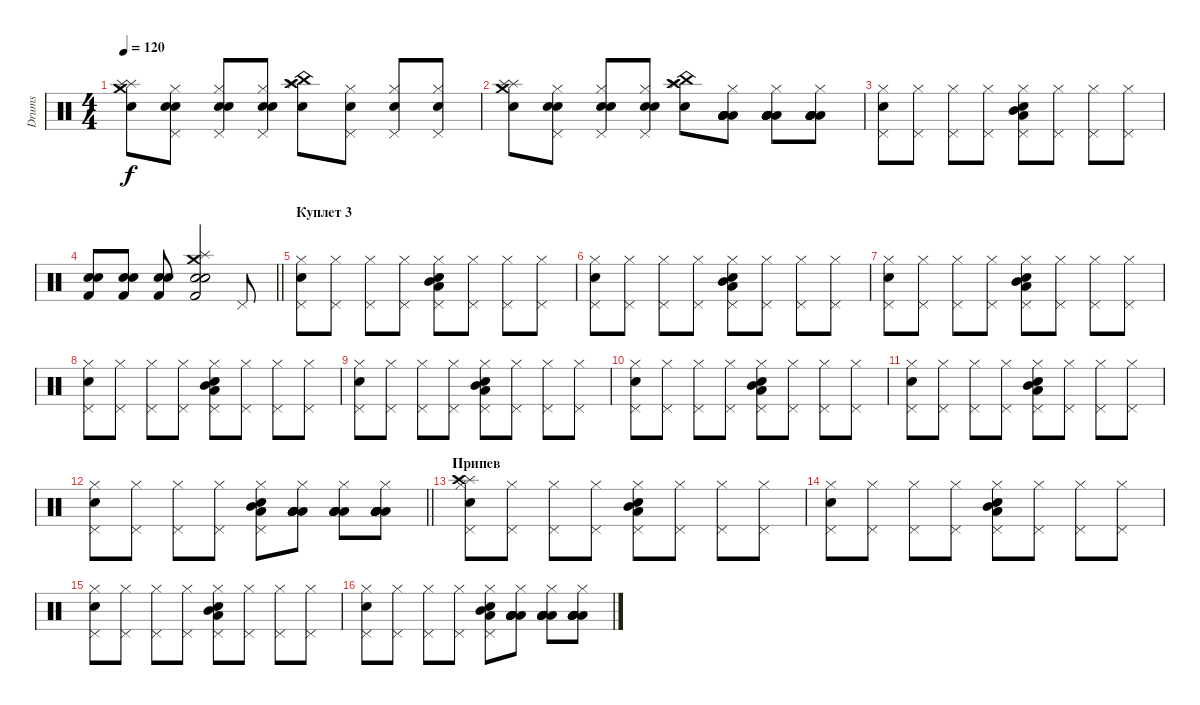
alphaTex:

\track ("Drums" "Drums") {instrument percussion}
\staff {score}
\articulation defaults
\ts (4 4)
\tempo 120
\clef neutral
\ks c
("Snare (hit) 2" "Crash medium (hit)" "Splash (hit)" "Splash (hit)").8{dy f} ("Hi-Hat (closed)" "Pedal Hi-Hat (hit)" "Snare (hit) 2" "Snare (hit) 2").8 ("Hi-Hat (closed)" "Pedal Hi-Hat (hit)" "Snare (hit) 2" "Snare (hit) 2").8 ("Hi-Hat (closed)" "Pedal Hi-Hat (hit)" "Snare (hit) 2" "Snare (hit) 2").8 ("Crash high (hit)" "Splash (hit)" "China (hit)" "Snare (hit) 2").8 ("Hi-Hat (closed)" "Pedal Hi-Hat (hit)" "Snare (hit) 2").8 ("Hi-Hat (closed)" "Pedal Hi-Hat (hit)" "Snare (hit) 2").8 ("Hi-Hat (closed)" "Pedal Hi-Hat (hit)" "Snare (hit) 2").8 |
("Snare (hit) 2" "Crash medium (hit)" "Splash (hit)" "Splash (hit)").8 ("Hi-Hat (closed)" "Pedal Hi-Hat (hit)" "Snare (hit) 2" "Snare (hit) 2").8 ("Hi-Hat (closed)" "Pedal Hi-Hat (hit)" "Snare (hit) 2" "Snare (hit) 2").8 ("Hi-Hat (closed)" "Pedal Hi-Hat (hit)" "Snare (hit) 2" "Snare (hit) 2").8 ("Crash high (hit)" "Splash (hit)" "China (hit)" "Snare (hit) 2").8 ("Hi-Hat (closed)" "Low Tom (hit)" "Low Tom (hit)" "Low Tom (hit)" "Low Tom (hit)" "Low Tom (hit)").8 ("Hi-Hat (closed)" "Low Tom (hit)" "Low Tom (hit)" "Low Tom (hit)" "Low Tom (hit)" "Low Tom (hit)").8 ("Hi-Hat (closed)" "Low Tom (hit)" "Low Tom (hit)" "Low Tom (hit)" "Low Tom (hit)" "Low Tom (hit)").8 |
("Hi-Hat (closed)" "Pedal Hi-Hat (hit)" "Snare (hit) 2").8 ("Hi-Hat (closed)" "Pedal Hi-Hat (hit)").8 ("Hi-Hat (closed)" "Pedal Hi-Hat (hit)").8 ("Hi-Hat (closed)" "Pedal Hi-Hat (hit)").8 ("Hi-Hat (closed)" "Pedal Hi-Hat (hit)" "Mid Tom (hit)" "Low Floor Tom (hit)" "Electric Snare (hit)").8 ("Hi-Hat (closed)" "Pedal Hi-Hat (hit)").8 ("Hi-Hat (closed)" "Pedal Hi-Hat (hit)").8 ("Hi-Hat (closed)" "Pedal Hi-Hat (hit)").8 |
\barLineRight lightlight
("Kick (hit) 2" "Snare (hit) 2" "Electric Snare (hit)").8 ("Kick (hit) 2" "Snare (hit) 2" "Electric Snare (hit)").8 ("Kick (hit) 2" "Snare (hit) 2" "Electric Snare (hit)").8 ("Kick (hit) 2" "Snare (hit) 2" "Electric Snare (hit)" "Crash medium (hit)" "Splash (hit)").2 "Pedal Hi-Hat (hit)".8 |
\section ("" "Куплет 3")
("Hi-Hat (closed)" "Pedal Hi-Hat (hit)" "Snare (hit) 2").8 ("Hi-Hat (closed)" "Pedal Hi-Hat (hit)").8 ("Hi-Hat (closed)" "Pedal Hi-Hat (hit)").8 ("Hi-Hat (closed)" "Pedal Hi-Hat (hit)").8 ("Hi-Hat (closed)" "Pedal Hi-Hat (hit)" "Mid Tom (hit)" "Low Floor Tom (hit)" "Electric Snare (hit)").8 ("Hi-Hat (closed)" "Pedal Hi-Hat (hit)").8 ("Hi-Hat (closed)" "Pedal Hi-Hat (hit)").8 ("Hi-Hat (closed)" "Pedal Hi-Hat (hit)").8 |
("Hi-Hat (closed)" "Pedal Hi-Hat (hit)" "Snare (hit) 2").8 ("Hi-Hat (closed)" "Pedal Hi-Hat (hit)").8 ("Hi-Hat (closed)" "Pedal Hi-Hat (hit)").8 ("Hi-Hat (closed)" "Pedal Hi-Hat (hit)").8 ("Hi-Hat (closed)" "Pedal Hi-Hat (hit)" "Mid Tom (hit)" "Low Floor Tom (hit)" "Electric Snare (hit)").8 ("Hi-Hat (closed)" "Pedal Hi-Hat (hit)").8 ("Hi-Hat (closed)" "Pedal Hi-Hat (hit)").8 ("Hi-Hat (closed)" "Pedal Hi-Hat (hit)").8 |
("Hi-Hat (closed)" "Pedal Hi-Hat (hit)" "Snare (hit) 2").8 ("Hi-Hat (closed)" "Pedal Hi-Hat (hit)").8 ("Hi-Hat (closed)" "Pedal Hi-Hat (hit)").8 ("Hi-Hat (closed)" "Pedal Hi-Hat (hit)").8 ("Hi-Hat (closed)" "Pedal Hi-Hat (hit)" "Mid Tom (hit)" "Low Floor Tom (hit)" "Electric Snare (hit)").8 ("Hi-Hat (closed)" "Pedal Hi-Hat (hit)").8 ("Hi-Hat (closed)" "Pedal Hi-Hat (hit)").8 ("Hi-Hat (closed)" "Pedal Hi-Hat (hit)").8 |
("Hi-Hat (closed)" "Pedal Hi-Hat (hit)" "Snare (hit) 2").8 ("Hi-Hat (closed)" "Pedal Hi-Hat (hit)").8 ("Hi-Hat (closed)" "Pedal Hi-Hat (hit)").8 ("Hi-Hat (closed)" "Pedal Hi-Hat (hit)").8 ("Hi-Hat (closed)" "Pedal Hi-Hat (hit)" "Mid Tom (hit)" "Low Floor Tom (hit)" "Electric Snare (hit)").8 ("Hi-Hat (closed)" "Pedal Hi-Hat (hit)").8 ("Hi-Hat (closed)" "Pedal Hi-Hat (hit)").8 ("Hi-Hat (closed)" "Pedal Hi-Hat (hit)").8 |
("Hi-Hat (closed)" "Pedal Hi-Hat (hit)" "Snare (hit) 2").8 ("Hi-Hat (closed)" "Pedal Hi-Hat (hit)").8 ("Hi-Hat (closed)" "Pedal Hi-Hat (hit)").8 ("Hi-Hat (closed)" "Pedal Hi-Hat (hit)").8 ("Hi-Hat (closed)" "Pedal Hi-Hat (hit)" "Mid Tom (hit)" "Low Floor Tom (hit)" "Electric Snare (hit)").8 ("Hi-Hat (closed)" "Pedal Hi-Hat (hit)").8 ("Hi-Hat (closed)" "Pedal Hi-Hat (hit)").8 ("Hi-Hat (closed)" "Pedal Hi-Hat (hit)").8 |
("Hi-Hat (closed)" "Pedal Hi-Hat (hit)" "Snare (hit) 2").8 ("Hi-Hat (closed)" "Pedal Hi-Hat (hit)").8 ("Hi-Hat (closed)" "Pedal Hi-Hat (hit)").8 ("Hi-Hat (closed)" "Pedal Hi-Hat (hit)").8 ("Hi-Hat (closed)" "Pedal Hi-Hat (hit)" "Mid Tom (hit)" "Low Floor Tom (hit)" "Electric Snare (hit)").8 ("Hi-Hat (closed)" "Pedal Hi-Hat (hit)").8 ("Hi-Hat (closed)" "Pedal Hi-Hat (hit)").8 ("Hi-Hat (closed)" "Pedal Hi-Hat (hit)").8 |
("Hi-Hat (closed)" "Pedal Hi-Hat (hit)" "Snare (hit) 2").8 ("Hi-Hat (closed)" "Pedal Hi-Hat (hit)").8 ("Hi-Hat (closed)" "Pedal Hi-Hat (hit)").8 ("Hi-Hat (closed)" "Pedal Hi-Hat (hit)").8 ("Hi-Hat (closed)" "Pedal Hi-Hat (hit)" "Mid Tom (hit)" "Low Floor Tom (hit)" "Electric Snare (hit)").8 ("Hi-Hat (closed)" "Pedal Hi-Hat (hit)").8 ("Hi-Hat (closed)" "Pedal Hi-Hat (hit)").8 ("Hi-Hat (closed)" "Pedal Hi-Hat (hit)").8 |
\barLineRight lightlight
("Hi-Hat (closed)" "Pedal Hi-Hat (hit)" "Snare (hit) 2").8 ("Hi-Hat (closed)" "Pedal Hi-Hat (hit)").8 ("Hi-Hat (closed)" "Pedal Hi-Hat (hit)").8 ("Hi-Hat (closed)" "Pedal Hi-Hat (hit)").8 ("Hi-Hat (closed)" "Pedal Hi-Hat (hit)" "Mid Tom (hit)" "Low Floor Tom (hit)" "Electric Snare (hit)").8 ("Hi-Hat (closed)" "Low Tom (hit)" "Low Tom (hit)" "Low Tom (hit)" "Low Tom (hit)" "Low Tom (hit)").8 ("Hi-Hat (closed)" "Low Tom (hit)" "Low Tom (hit)" "Low Tom (hit)" "Low Tom (hit)" "Low Tom (hit)").8 ("Hi-Hat (closed)" "Low Tom (hit)" "Low Tom (hit)" "Low Tom (hit)" "Low Tom (hit)" "Low Tom (hit)").8 |
\section ("" "Припев")
("Hi-Hat (closed)" "Pedal Hi-Hat (hit)" "Snare (hit) 2" "Splash (hit)" "Crash high (hit)").8 ("Hi-Hat (closed)" "Pedal Hi-Hat (hit)").8 ("Hi-Hat (closed)" "Pedal Hi-Hat (hit)").8 ("Hi-Hat (closed)" "Pedal Hi-Hat (hit)").8 ("Hi-Hat (closed)" "Pedal Hi-Hat (hit)" "Mid Tom (hit)" "Low Floor Tom (hit)" "Electric Snare (hit)").8 ("Hi-Hat (closed)" "Pedal Hi-Hat (hit)").8 ("Hi-Hat (closed)" "Pedal Hi-Hat (hit)").8 ("Hi-Hat (closed)" "Pedal Hi-Hat (hit)").8 |
("Hi-Hat (closed)" "Pedal Hi-Hat (hit)" "Snare (hit) 2").8 ("Hi-Hat (closed)" "Pedal Hi-Hat (hit)").8 ("Hi-Hat (closed)" "Pedal Hi-Hat (hit)").8 ("Hi-Hat (closed)" "Pedal Hi-Hat (hit)").8 ("Hi-Hat (closed)" "Pedal Hi-Hat (hit)" "Mid Tom (hit)" "Low Floor Tom (hit)" "Electric Snare (hit)").8 ("Hi-Hat (closed)" "Pedal Hi-Hat (hit)").8 ("Hi-Hat (closed)" "Pedal Hi-Hat (hit)").8 ("Hi-Hat (closed)" "Pedal Hi-Hat (hit)").8 |
("Hi-Hat (closed)" "Pedal Hi-Hat (hit)" "Snare (hit) 2").8 ("Hi-Hat (closed)" "Pedal Hi-Hat (hit)").8 ("Hi-Hat (closed)" "Pedal Hi-Hat (hit)").8 ("Hi-Hat (closed)" "Pedal Hi-Hat (hit)").8 ("Hi-Hat (closed)" "Pedal Hi-Hat (hit)" "Mid Tom (hit)" "Low Floor Tom (hit)" "Electric Snare (hit)").8 ("Hi-Hat (closed)" "Pedal Hi-Hat (hit)").8 ("Hi-Hat (closed)" "Pedal Hi-Hat (hit)").8 ("Hi-Hat (closed)" "Pedal Hi-Hat (hit)").8 |
("Hi-Hat (closed)" "Pedal Hi-Hat (hit)" "Snare (hit) 2").8 ("Hi-Hat (closed)" "Pedal Hi-Hat (hit)").8 ("Hi-Hat (closed)" "Pedal Hi-Hat (hit)").8 ("Hi-Hat (closed)" "Pedal Hi-Hat (hit)").8 ("Hi-Hat (closed)" "Pedal Hi-Hat (hit)" "Mid Tom (hit)" "Low Floor Tom (hit)" "Electric Snare (hit)").8 ("Hi-Hat (closed)" "Low Tom (hit)" "Low Tom (hit)" "Low Tom (hit)" "Low Tom (hit)" "Low Tom (hit)").8 ("Hi-Hat (closed)" "Low Tom (hit)" "Low Tom (hit)" "Low Tom (hit)" "Low Tom (hit)" "Low Tom (hit)").8 ("Hi-Hat (closed)" "Low Tom (hit)" "Low Tom (hit)" "Low Tom (hit)" "Low Tom (hit)" "Low Tom (hit)").8
